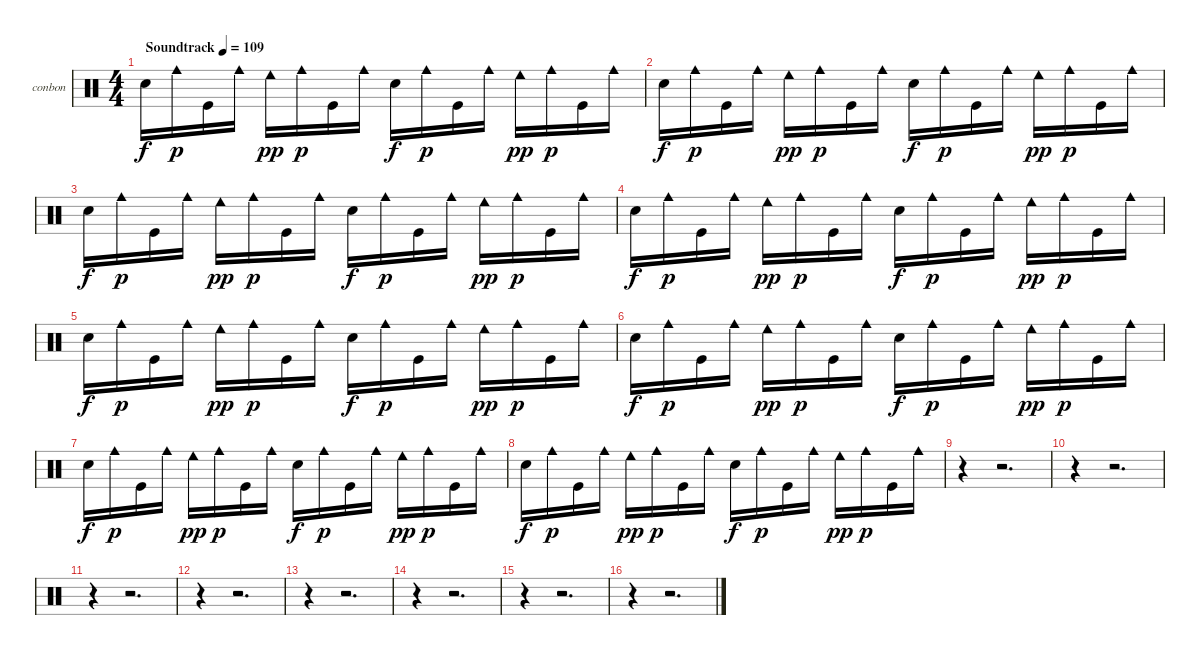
\bracketExtendMode groupsimilarinstruments
\firstSystemTrackNameOrientation horizontal
\otherSystemsTrackNameOrientation horizontal
\track ("Bongos N Congas" "conbon") {instrument percussion}
\staff {score}
\articulation defaults
\ts (4 4)
\beaming (8 2 2 2 2)
\tempo (109 "Soundtrack")
\clef neutral
\scale
0.472222
\ks c "Snare (hit) 2".16{dy f} "Cowbell medium (hit)".16{dy p} "Kick (hit)".16 "Cowbell medium (hit)".16 "Cowbell low (hit)".16{dy pp} "Cowbell medium (hit)".16{dy p} "Kick (hit)".16 "Cowbell medium (hit)".16 "Snare (hit) 2".16{dy f} "Cowbell medium (hit)".16{dy p} "Kick (hit)".16 "Cowbell medium (hit)".16 "Cowbell low (hit)".16{dy pp} "Cowbell medium (hit)".16{dy p} "Kick (hit)".16 "Cowbell medium (hit)".16
|
\scale
0.263889 "Snare (hit) 2".16{dy f} "Cowbell medium (hit)".16{dy p} "Kick (hit)".16 "Cowbell medium (hit)".16 "Cowbell low (hit)".16{dy pp} "Cowbell medium (hit)".16{dy p} "Kick (hit)".16 "Cowbell medium (hit)".16 "Snare (hit) 2".16{dy f} "Cowbell medium (hit)".16{dy p} "Kick (hit)".16 "Cowbell medium (hit)".16 "Cowbell low (hit)".16{dy pp} "Cowbell medium (hit)".16{dy p} "Kick (hit)".16 "Cowbell medium (hit)".16 |
\scale
0.263889 "Snare (hit) 2".16{dy f} "Cowbell medium (hit)".16{dy p} "Kick (hit)".16 "Cowbell medium (hit)".16 "Cowbell low (hit)".16{dy pp} "Cowbell medium (hit)".16{dy p} "Kick (hit)".16 "Cowbell medium (hit)".16 "Snare (hit) 2".16{dy f} "Cowbell medium (hit)".16{dy p} "Kick (hit)".16 "Cowbell medium (hit)".16 "Cowbell low (hit)".16{dy pp} "Cowbell medium (hit)".16{dy p} "Kick (hit)".16 "Cowbell medium (hit)".16 |
\scale
0.333333 "Snare (hit) 2".16{dy f} "Cowbell medium (hit)".16{dy p} "Kick (hit)".16 "Cowbell medium (hit)".16 "Cowbell low (hit)".16{dy pp} "Cowbell medium (hit)".16{dy p} "Kick (hit)".16 "Cowbell medium (hit)".16 "Snare (hit) 2".16{dy f} "Cowbell medium (hit)".16{dy p} "Kick (hit)".16 "Cowbell medium (hit)".16 "Cowbell low (hit)".16{dy pp} "Cowbell medium (hit)".16{dy p} "Kick (hit)".16 "Cowbell medium (hit)".16 |
\scale
0.333333 "Snare (hit) 2".16{dy f} "Cowbell medium (hit)".16{dy p} "Kick (hit)".16 "Cowbell medium (hit)".16 "Cowbell low (hit)".16{dy pp} "Cowbell medium (hit)".16{dy p} "Kick (hit)".16 "Cowbell medium (hit)".16 "Snare (hit) 2".16{dy f} "Cowbell medium (hit)".16{dy p} "Kick (hit)".16 "Cowbell medium (hit)".16 "Cowbell low (hit)".16{dy pp} "Cowbell medium (hit)".16{dy p} "Kick (hit)".16 "Cowbell medium (hit)".16 |
\scale
0.333333 "Snare (hit) 2".16{dy f} "Cowbell medium (hit)".16{dy p} "Kick (hit)".16 "Cowbell medium (hit)".16 "Cowbell low (hit)".16{dy pp} "Cowbell medium (hit)".16{dy p} "Kick (hit)".16 "Cowbell medium (hit)".16 "Snare (hit) 2".16{dy f} "Cowbell medium (hit)".16{dy p} "Kick (hit)".16 "Cowbell medium (hit)".16 "Cowbell low (hit)".16{dy pp} "Cowbell medium (hit)".16{dy p} "Kick (hit)".16 "Cowbell medium (hit)".16 |
\scale
0.333333 "Snare (hit) 2".16{dy f} "Cowbell medium (hit)".16{dy p} "Kick (hit)".16 "Cowbell medium (hit)".16 "Cowbell low (hit)".16{dy pp} "Cowbell medium (hit)".16{dy p} "Kick (hit)".16 "Cowbell medium (hit)".16 "Snare (hit) 2".16{dy f} "Cowbell medium (hit)".16{dy p} "Kick (hit)".16 "Cowbell medium (hit)".16 "Cowbell low (hit)".16{dy pp} "Cowbell medium (hit)".16{dy p} "Kick (hit)".16 "Cowbell medium (hit)".16 |
\scale
0.333333 "Snare (hit) 2".16{dy f} "Cowbell medium (hit)".16{dy p} "Kick (hit)".16 "Cowbell medium (hit)".16 "Cowbell low (hit)".16{dy pp} "Cowbell medium (hit)".16{dy p} "Kick (hit)".16 "Cowbell medium (hit)".16 "Snare (hit) 2".16{dy f} "Cowbell medium (hit)".16{dy p} "Kick (hit)".16 "Cowbell medium (hit)".16 "Cowbell low (hit)".16{dy pp} "Cowbell medium (hit)".16{dy p} "Kick (hit)".16 "Cowbell medium (hit)".16 |
\scale
0.333333 r.4 r.2{d} |
\scale
0.333333 r.4 r.2{d} |
\scale
0.333333 r.4 r.2{d} |
\scale
0.333333 r.4 r.2{d} |
\scale
0.333333 r.4 r.2{d} |
\scale
0.333333 r.4 r.2{d} |
\scale
0.333333 r.4 r.2{d} |
\scale
0.333333 r.4 r.2{d}
